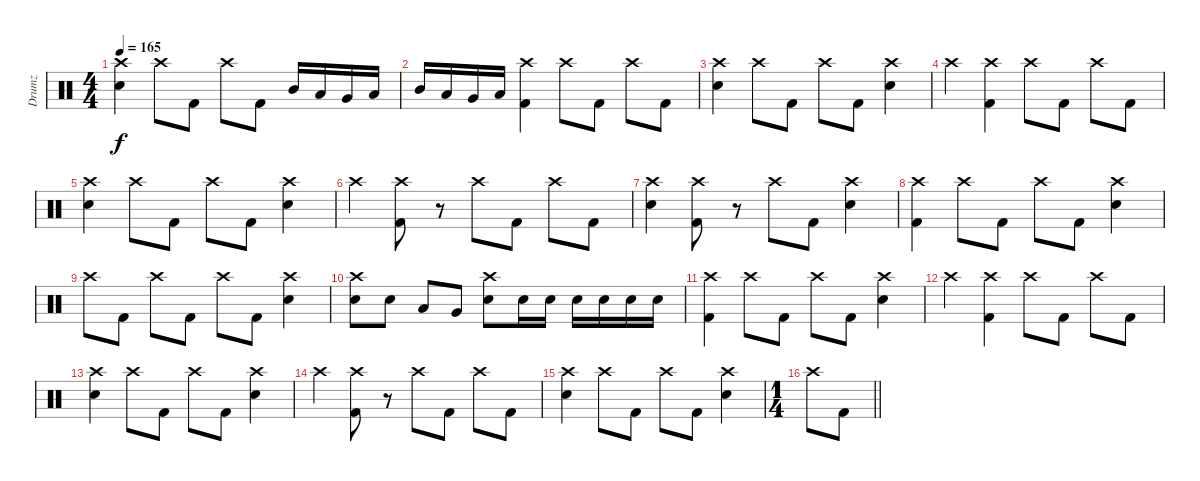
\track ("Drumz" "Drumz") {instrument percussion}
\staff {score}
\articulation defaults
\ts (4 4)
\tempo 165
\clef neutral
\ks c
("Crash high (hit)" "Snare (hit) 2").4{dy f} "Crash high (hit)".8 "Kick (hit) 2".8 "Crash high (hit)".8 "Kick (hit) 2".8 "Mid Tom (hit)".16 "Low Tom (hit)".16 "Very Low Tom (hit)".16 "Low Floor Tom (hit)".16 |
"Mid Tom (hit)".16 "Low Tom (hit)".16 "Very Low Tom (hit)".16 "Low Floor Tom (hit)".16 ("Crash high (hit)" "Kick (hit) 2").4 "Crash high (hit)".8 "Kick (hit) 2".8 "Crash high (hit)".8 "Kick (hit) 2".8 |
("Crash high (hit)" "Snare (hit) 2").4 "Crash high (hit)".8 "Kick (hit) 2".8 "Crash high (hit)".8 "Kick (hit) 2".8 ("Snare (hit) 2" "Crash high (hit)").4 |
"Crash high (hit)".4 ("Crash high (hit)" "Kick (hit) 2").4 "Crash high (hit)".8 "Kick (hit) 2".8 "Crash high (hit)".8 "Kick (hit) 2".8 |
("Crash high (hit)" "Snare (hit) 2").4 "Crash high (hit)".8 "Kick (hit) 2".8 "Crash high (hit)".8 "Kick (hit) 2".8 ("Snare (hit) 2" "Crash high (hit)").4 |
"Crash high (hit)".4 ("Crash high (hit)" "Kick (hit) 2").8 r.8 "Crash high (hit)".8 "Kick (hit) 2".8 "Crash high (hit)".8 "Kick (hit) 2".8 |
("Crash high (hit)" "Snare (hit) 2").4 ("Crash high (hit)" "Kick (hit) 2").8 r.8 "Crash high (hit)".8 "Kick (hit) 2".8 ("Crash high (hit)" "Snare (hit) 2").4 |
("Kick (hit) 2" "Crash high (hit)").4 "Crash high (hit)".8 "Kick (hit) 2".8 "Crash high (hit)".8 "Kick (hit) 2".8 ("Snare (hit) 2" "Crash high (hit)").4 |
"Crash high (hit)".8 "Kick (hit) 2".8 "Crash high (hit)".8 "Kick (hit) 2".8 "Crash high (hit)".8 "Kick (hit) 2".8 ("Snare (hit) 2" "Crash high (hit)").4 |
("Snare (hit) 2" "Crash high (hit)").8 "Snare (hit) 2".8 "Low Tom (hit)".8 "Very Low Tom (hit)".8 ("Crash high (hit)" "Snare (hit) 2").8 "Snare (hit) 2".16 "Snare (hit) 2".16 "Snare (hit) 2".16 "Snare (hit) 2".16 "Snare (hit) 2".16 "Snare (hit) 2".16 |
("Kick (hit) 2" "Crash high (hit)").4 "Crash high (hit)".8 "Kick (hit) 2".8 "Crash high (hit)".8 "Kick (hit) 2".8 ("Snare (hit) 2" "Crash high (hit)").4 |
"Crash high (hit)".4 ("Kick (hit) 2" "Crash high (hit)").4 "Crash high (hit)".8 "Kick (hit) 2".8 "Crash high (hit)".8 "Kick (hit) 2".8 |
("Snare (hit) 2" "Crash high (hit)").4 "Crash high (hit)".8 "Kick (hit) 2".8 "Crash high (hit)".8 "Kick (hit) 2".8 ("Snare (hit) 2" "Crash high (hit)").4 |
"Crash high (hit)".4 ("Crash high (hit)" "Kick (hit) 2").8 r.8 "Crash high (hit)".8 "Kick (hit) 2".8 "Crash high (hit)".8 "Kick (hit) 2".8 |
("Crash high (hit)" "Snare (hit) 2").4 "Crash high (hit)".8 "Kick (hit) 2".8 "Crash high (hit)".8 "Kick (hit) 2".8 ("Crash high (hit)" "Snare (hit) 2").4 |
\ts (1 4)
\barLineRight lightlight "Crash high (hit)".8 "Kick (hit) 2".8
